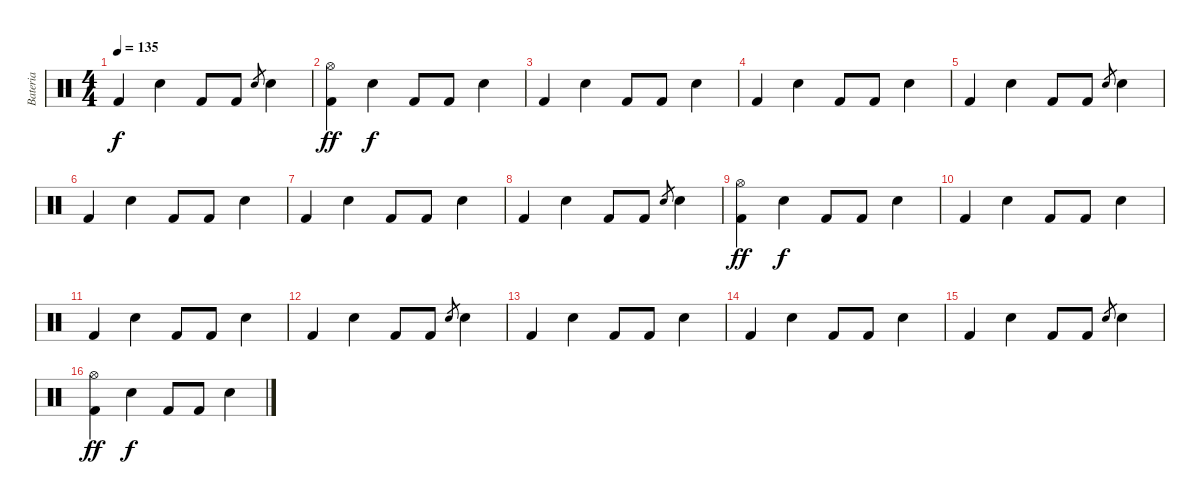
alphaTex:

\track ("Bateria" "Bateria") {instrument percussion}
\staff {score}
\articulation defaults
\ts (4 4)
\tempo 135
\clef neutral
\ks c "Kick (hit) 2".4{dy f} "Electric Snare (hit)".4 "Kick (hit) 2".8 "Kick (hit) 2".8 "Electric Snare (hit)".8{gr} "Electric Snare (hit)".4
|
("Hi-Hat (open)" "Kick (hit) 2").4{dy ff} "Electric Snare (hit)".4{dy f} "Kick (hit) 2".8 "Kick (hit) 2".8 "Electric Snare (hit)".4 |
"Kick (hit) 2".4 "Electric Snare (hit)".4 "Kick (hit) 2".8 "Kick (hit) 2".8 "Electric Snare (hit)".4 |
"Kick (hit) 2".4 "Electric Snare (hit)".4 "Kick (hit) 2".8 "Kick (hit) 2".8 "Electric Snare (hit)".4 |
"Kick (hit) 2".4 "Electric Snare (hit)".4 "Kick (hit) 2".8 "Kick (hit) 2".8 "Electric Snare (hit)".8{gr} "Electric Snare (hit)".4 |
"Kick (hit) 2".4 "Electric Snare (hit)".4 "Kick (hit) 2".8 "Kick (hit) 2".8 "Electric Snare (hit)".4 |
"Kick (hit) 2".4 "Electric Snare (hit)".4 "Kick (hit) 2".8 "Kick (hit) 2".8 "Electric Snare (hit)".4 |
"Kick (hit) 2".4 "Electric Snare (hit)".4 "Kick (hit) 2".8 "Kick (hit) 2".8 "Electric Snare (hit)".8{gr} "Electric Snare (hit)".4 |
("Hi-Hat (open)" "Kick (hit) 2").4{dy ff} "Electric Snare (hit)".4{dy f} "Kick (hit) 2".8 "Kick (hit) 2".8 "Electric Snare (hit)".4 |
"Kick (hit) 2".4 "Electric Snare (hit)".4 "Kick (hit) 2".8 "Kick (hit) 2".8 "Electric Snare (hit)".4 |
"Kick (hit) 2".4 "Electric Snare (hit)".4 "Kick (hit) 2".8 "Kick (hit) 2".8 "Electric Snare (hit)".4 |
"Kick (hit) 2".4 "Electric Snare (hit)".4 "Kick (hit) 2".8 "Kick (hit) 2".8 "Electric Snare (hit)".8{gr} "Electric Snare (hit)".4 |
"Kick (hit) 2".4 "Electric Snare (hit)".4 "Kick (hit) 2".8 "Kick (hit) 2".8 "Electric Snare (hit)".4 |
"Kick (hit) 2".4 "Electric Snare (hit)".4 "Kick (hit) 2".8 "Kick (hit) 2".8 "Electric Snare (hit)".4 |
"Kick (hit) 2".4 "Electric Snare (hit)".4 "Kick (hit) 2".8 "Kick (hit) 2".8 "Electric Snare (hit)".8{gr} "Electric Snare (hit)".4 |
("Hi-Hat (open)" "Kick (hit) 2").4{dy ff} "Electric Snare (hit)".4{dy f} "Kick (hit) 2".8 "Kick (hit) 2".8 "Electric Snare (hit)".4
